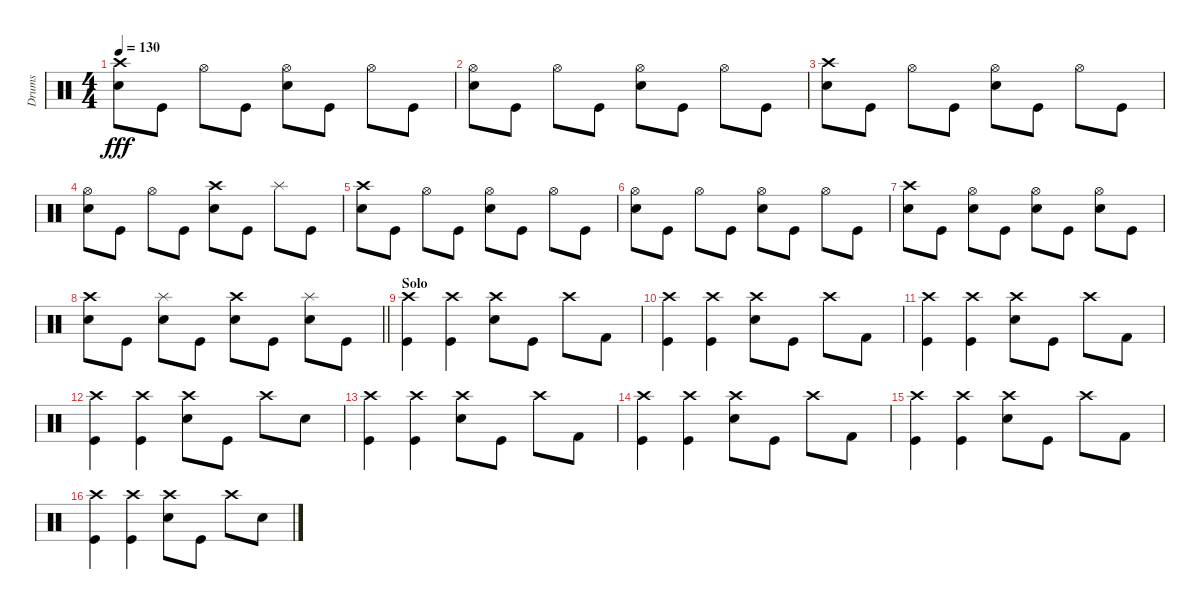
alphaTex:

\track ("Drums" "Drums") {instrument percussion}
\staff {score}
\articulation defaults
\ts (4 4)
\tempo 130
\clef neutral
\ks c
("Crash high (hit)" "Snare (hit) 2").8{dy fff} "Kick (hit)".8 "Hi-Hat (open)".8 "Kick (hit)".8 ("Hi-Hat (open)" "Snare (hit) 2").8 "Kick (hit)".8 "Hi-Hat (open)".8 "Kick (hit)".8 |
("Hi-Hat (open)" "Snare (hit) 2").8 "Kick (hit)".8 "Hi-Hat (open)".8 "Kick (hit)".8 ("Hi-Hat (open)" "Snare (hit) 2").8 "Kick (hit)".8 "Hi-Hat (open)".8 "Kick (hit)".8 |
("Crash high (hit)" "Snare (hit) 2").8 "Kick (hit)".8 "Hi-Hat (open)".8 "Kick (hit)".8 ("Hi-Hat (open)" "Snare (hit) 2").8 "Kick (hit)".8 "Hi-Hat (open)".8 "Kick (hit)".8 |
("Hi-Hat (open)" "Snare (hit) 2").8 "Kick (hit)".8 "Hi-Hat (open)".8 "Kick (hit)".8 ("Crash high (hit)" "Snare (hit) 2").8 "Kick (hit)".8 "Splash (hit)".8 "Kick (hit)".8 |
("Crash high (hit)" "Snare (hit) 2").8 "Kick (hit)".8 "Hi-Hat (open)".8 "Kick (hit)".8 ("Hi-Hat (open)" "Snare (hit) 2").8 "Kick (hit)".8 "Hi-Hat (open)".8 "Kick (hit)".8 |
("Hi-Hat (open)" "Snare (hit) 2").8 "Kick (hit)".8 "Hi-Hat (open)".8 "Kick (hit)".8 ("Hi-Hat (open)" "Snare (hit) 2").8 "Kick (hit)".8 "Hi-Hat (open)".8 "Kick (hit)".8 |
("Crash high (hit)" "Snare (hit) 2").8 "Kick (hit)".8 ("Hi-Hat (open)" "Snare (hit) 2").8 "Kick (hit)".8 ("Hi-Hat (open)" "Snare (hit) 2").8 "Kick (hit)".8 ("Hi-Hat (open)" "Snare (hit) 2").8 "Kick (hit)".8 |
\barLineRight lightlight
("Crash high (hit)" "Snare (hit) 2").8 "Kick (hit)".8 ("Splash (hit)" "Snare (hit) 2").8 "Kick (hit)".8 ("Crash high (hit)" "Snare (hit) 2").8 "Kick (hit)".8 ("Splash (hit)" "Snare (hit) 2").8 "Kick (hit)".8 |
\section ("" "Solo")
("Crash high (hit)" "Kick (hit)").4 ("Crash high (hit)" "Kick (hit)").4 ("Crash high (hit)" "Snare (hit) 2").8 "Kick (hit)".8 "Crash high (hit)".8 "Kick (hit) 2".8 |
("Crash high (hit)" "Kick (hit)").4 ("Crash high (hit)" "Kick (hit)").4 ("Crash high (hit)" "Snare (hit) 2").8 "Kick (hit)".8 "Crash high (hit)".8 "Kick (hit) 2".8 |
("Crash high (hit)" "Kick (hit)").4 ("Crash high (hit)" "Kick (hit)").4 ("Crash high (hit)" "Snare (hit) 2").8 "Kick (hit)".8 "Crash high (hit)".8 "Kick (hit) 2".8 |
("Crash high (hit)" "Kick (hit)").4 ("Crash high (hit)" "Kick (hit)").4 ("Crash high (hit)" "Snare (hit) 2").8 "Kick (hit)".8 "Crash high (hit)".8 "Snare (hit) 2".8 |
("Crash high (hit)" "Kick (hit)").4 ("Crash high (hit)" "Kick (hit)").4 ("Crash high (hit)" "Snare (hit) 2").8 "Kick (hit)".8 "Crash high (hit)".8 "Kick (hit) 2".8 |
("Crash high (hit)" "Kick (hit)").4 ("Crash high (hit)" "Kick (hit)").4 ("Crash high (hit)" "Snare (hit) 2").8 "Kick (hit)".8 "Crash high (hit)".8 "Kick (hit) 2".8 |
("Crash high (hit)" "Kick (hit)").4 ("Crash high (hit)" "Kick (hit)").4 ("Crash high (hit)" "Snare (hit) 2").8 "Kick (hit)".8 "Crash high (hit)".8 "Kick (hit) 2".8 |
("Crash high (hit)" "Kick (hit)").4 ("Crash high (hit)" "Kick (hit)").4 ("Crash high (hit)" "Snare (hit) 2").8 "Kick (hit)".8 "Crash high (hit)".8 "Snare (hit) 2".8
